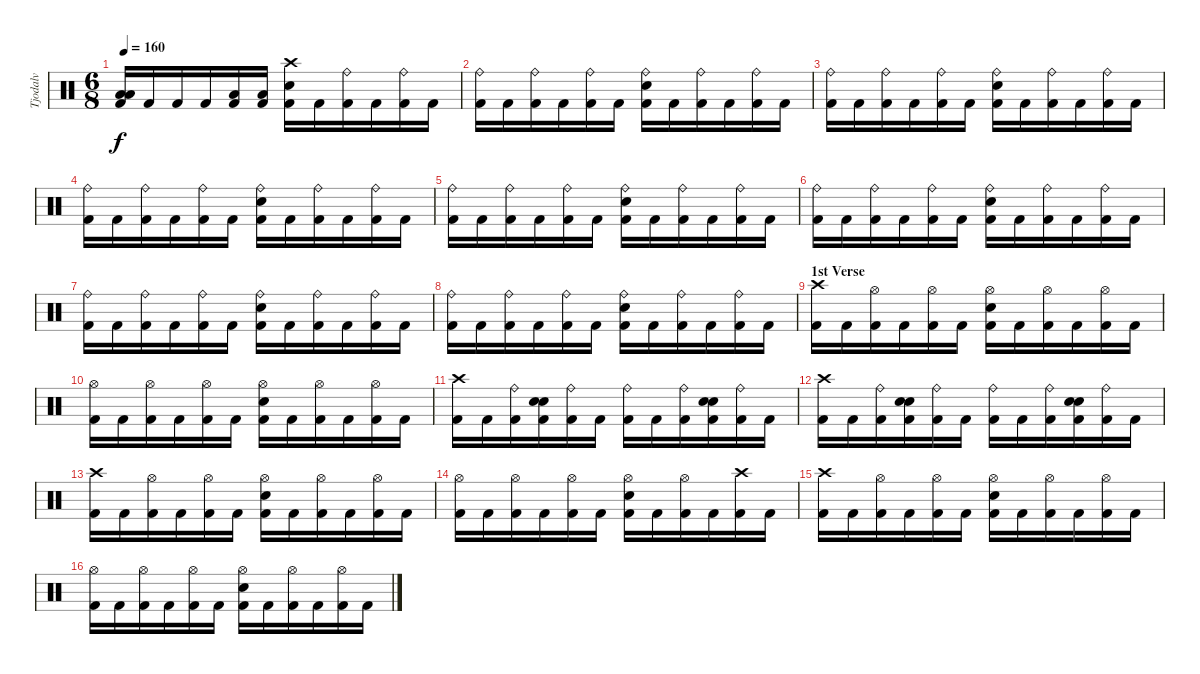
\track ("Tjodalv" "Tjodalv") {instrument percussion}
\staff {score}
\articulation defaults
\ts (6 8)
\tempo 160
\clef neutral
\ks c
("Low Floor Tom (hit)" "Low Floor Tom (hit)" "Kick (hit) 2").16{dy f} "Kick (hit) 2".16 "Kick (hit) 2".16 "Kick (hit) 2".16 ("Low Floor Tom (hit)" "Kick (hit) 2").16 ("Low Floor Tom (hit)" "Kick (hit) 2").16 ("Crash high (hit)" "Snare (hit) 2" "Kick (hit) 2").16 "Kick (hit) 2".16 ("Ride (bell)" "Kick (hit) 2").16 "Kick (hit) 2".16 ("Ride (bell)" "Kick (hit) 2").16 "Kick (hit) 2".16 |
("Ride (bell)" "Kick (hit) 2").16 "Kick (hit) 2".16 ("Ride (bell)" "Kick (hit) 2").16 "Kick (hit) 2".16 ("Ride (bell)" "Kick (hit) 2").16 "Kick (hit) 2".16 ("Ride (bell)" "Snare (hit) 2" "Kick (hit) 2").16 "Kick (hit) 2".16 ("Ride (bell)" "Kick (hit) 2").16 "Kick (hit) 2".16 ("Ride (bell)" "Kick (hit) 2").16 "Kick (hit) 2".16 |
("Ride (bell)" "Kick (hit) 2").16 "Kick (hit) 2".16 ("Ride (bell)" "Kick (hit) 2").16 "Kick (hit) 2".16 ("Ride (bell)" "Kick (hit) 2").16 "Kick (hit) 2".16 ("Ride (bell)" "Snare (hit) 2" "Kick (hit) 2").16 "Kick (hit) 2".16 ("Ride (bell)" "Kick (hit) 2").16 "Kick (hit) 2".16 ("Ride (bell)" "Kick (hit) 2").16 "Kick (hit) 2".16 |
("Ride (bell)" "Kick (hit) 2").16 "Kick (hit) 2".16 ("Ride (bell)" "Kick (hit) 2").16 "Kick (hit) 2".16 ("Ride (bell)" "Kick (hit) 2").16 "Kick (hit) 2".16 ("Ride (bell)" "Snare (hit) 2" "Kick (hit) 2").16 "Kick (hit) 2".16 ("Ride (bell)" "Kick (hit) 2").16 "Kick (hit) 2".16 ("Ride (bell)" "Kick (hit) 2").16 "Kick (hit) 2".16 |
("Ride (bell)" "Kick (hit) 2").16 "Kick (hit) 2".16 ("Ride (bell)" "Kick (hit) 2").16 "Kick (hit) 2".16 ("Ride (bell)" "Kick (hit) 2").16 "Kick (hit) 2".16 ("Ride (bell)" "Snare (hit) 2" "Kick (hit) 2").16 "Kick (hit) 2".16 ("Ride (bell)" "Kick (hit) 2").16 "Kick (hit) 2".16 ("Ride (bell)" "Kick (hit) 2").16 "Kick (hit) 2".16 |
("Ride (bell)" "Kick (hit) 2").16 "Kick (hit) 2".16 ("Ride (bell)" "Kick (hit) 2").16 "Kick (hit) 2".16 ("Ride (bell)" "Kick (hit) 2").16 "Kick (hit) 2".16 ("Ride (bell)" "Snare (hit) 2" "Kick (hit) 2").16 "Kick (hit) 2".16 ("Ride (bell)" "Kick (hit) 2").16 "Kick (hit) 2".16 ("Ride (bell)" "Kick (hit) 2").16 "Kick (hit) 2".16 |
("Ride (bell)" "Kick (hit) 2").16 "Kick (hit) 2".16 ("Ride (bell)" "Kick (hit) 2").16 "Kick (hit) 2".16 ("Ride (bell)" "Kick (hit) 2").16 "Kick (hit) 2".16 ("Ride (bell)" "Snare (hit) 2" "Kick (hit) 2").16 "Kick (hit) 2".16 ("Ride (bell)" "Kick (hit) 2").16 "Kick (hit) 2".16 ("Ride (bell)" "Kick (hit) 2").16 "Kick (hit) 2".16 |
("Ride (bell)" "Kick (hit) 2").16 "Kick (hit) 2".16 ("Ride (bell)" "Kick (hit) 2").16 "Kick (hit) 2".16 ("Ride (bell)" "Kick (hit) 2").16 "Kick (hit) 2".16 ("Ride (bell)" "Snare (hit) 2" "Kick (hit) 2").16 "Kick (hit) 2".16 ("Ride (bell)" "Kick (hit) 2").16 "Kick (hit) 2".16 ("Ride (bell)" "Kick (hit) 2").16 "Kick (hit) 2".16 |
\section ("" "1st Verse")
("Crash high (hit)" "Kick (hit) 2").16 "Kick (hit) 2".16 ("Hi-Hat (open)" "Kick (hit) 2").16 "Kick (hit) 2".16 ("Hi-Hat (open)" "Kick (hit) 2").16 "Kick (hit) 2".16 ("Hi-Hat (open)" "Snare (hit) 2" "Kick (hit) 2").16 "Kick (hit) 2".16 ("Hi-Hat (open)" "Kick (hit) 2").16 "Kick (hit) 2".16 ("Hi-Hat (open)" "Kick (hit) 2").16 "Kick (hit) 2".16 |
("Hi-Hat (open)" "Kick (hit) 2").16 "Kick (hit) 2".16 ("Hi-Hat (open)" "Kick (hit) 2").16 "Kick (hit) 2".16 ("Hi-Hat (open)" "Kick (hit) 2").16 "Kick (hit) 2".16 ("Hi-Hat (open)" "Snare (hit) 2" "Kick (hit) 2").16 "Kick (hit) 2".16 ("Hi-Hat (open)" "Kick (hit) 2").16 "Kick (hit) 2".16 ("Hi-Hat (open)" "Kick (hit) 2").16 "Kick (hit) 2".16 |
("Crash high (hit)" "Kick (hit) 2").16 "Kick (hit) 2".16 ("Ride (bell)" "Kick (hit) 2").16 ("Snare (hit) 2" "Snare (hit) 2" "Kick (hit) 2").16 ("Ride (bell)" "Kick (hit) 2").16 "Kick (hit) 2".16 ("Ride (bell)" "Kick (hit) 2").16 "Kick (hit) 2".16 ("Ride (bell)" "Kick (hit) 2").16 ("Snare (hit) 2" "Snare (hit) 2" "Kick (hit) 2").16 ("Ride (bell)" "Kick (hit) 2").16 "Kick (hit) 2".16 |
("Crash high (hit)" "Kick (hit) 2").16 "Kick (hit) 2".16 ("Ride (bell)" "Kick (hit) 2").16 ("Snare (hit) 2" "Snare (hit) 2" "Kick (hit) 2").16 ("Ride (bell)" "Kick (hit) 2").16 "Kick (hit) 2".16 ("Ride (bell)" "Kick (hit) 2").16 "Kick (hit) 2".16 ("Ride (bell)" "Kick (hit) 2").16 ("Snare (hit) 2" "Snare (hit) 2" "Kick (hit) 2").16 ("Ride (bell)" "Kick (hit) 2").16 "Kick (hit) 2".16 |
("Crash high (hit)" "Kick (hit) 2").16 "Kick (hit) 2".16 ("Hi-Hat (open)" "Kick (hit) 2").16 "Kick (hit) 2".16 ("Hi-Hat (open)" "Kick (hit) 2").16 "Kick (hit) 2".16 ("Hi-Hat (open)" "Snare (hit) 2" "Kick (hit) 2").16 "Kick (hit) 2".16 ("Hi-Hat (open)" "Kick (hit) 2").16 "Kick (hit) 2".16 ("Hi-Hat (open)" "Kick (hit) 2").16 "Kick (hit) 2".16 |
("Hi-Hat (open)" "Kick (hit) 2").16 "Kick (hit) 2".16 ("Hi-Hat (open)" "Kick (hit) 2").16 "Kick (hit) 2".16 ("Hi-Hat (open)" "Kick (hit) 2").16 "Kick (hit) 2".16 ("Hi-Hat (open)" "Snare (hit) 2" "Kick (hit) 2").16 "Kick (hit) 2".16 ("Hi-Hat (open)" "Kick (hit) 2").16 "Kick (hit) 2".16 ("Crash high (hit)" "Kick (hit) 2").16 "Kick (hit) 2".16 |
("Crash high (hit)" "Kick (hit) 2").16 "Kick (hit) 2".16 ("Hi-Hat (open)" "Kick (hit) 2").16 "Kick (hit) 2".16 ("Hi-Hat (open)" "Kick (hit) 2").16 "Kick (hit) 2".16 ("Hi-Hat (open)" "Snare (hit) 2" "Kick (hit) 2").16 "Kick (hit) 2".16 ("Hi-Hat (open)" "Kick (hit) 2").16 "Kick (hit) 2".16 ("Hi-Hat (open)" "Kick (hit) 2").16 "Kick (hit) 2".16 |
("Hi-Hat (open)" "Kick (hit) 2").16 "Kick (hit) 2".16 ("Hi-Hat (open)" "Kick (hit) 2").16 "Kick (hit) 2".16 ("Hi-Hat (open)" "Kick (hit) 2").16 "Kick (hit) 2".16 ("Hi-Hat (open)" "Snare (hit) 2" "Kick (hit) 2").16 "Kick (hit) 2".16 ("Hi-Hat (open)" "Kick (hit) 2").16 "Kick (hit) 2".16 ("Hi-Hat (open)" "Kick (hit) 2").16 "Kick (hit) 2".16
